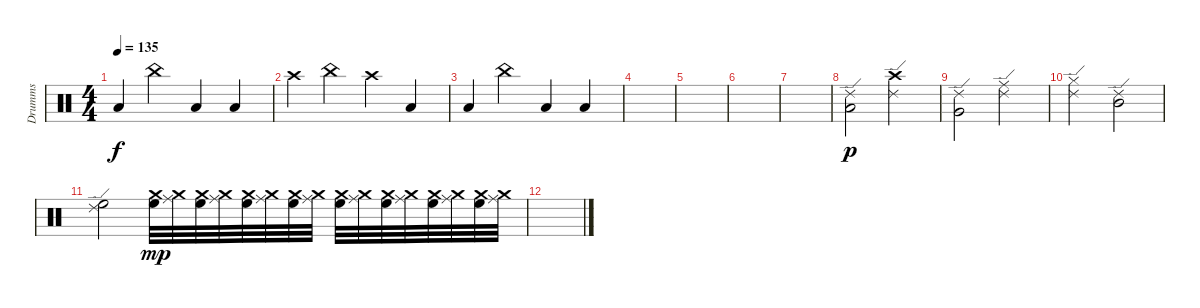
\track ("Drumms" "Drumms") {instrument percussion}
\staff {score}
\articulation defaults
\ts (4 4)
\tempo 135
\clef neutral
\ks c "Low Tom (hit)".4{dy f} "China (hit)".4 "Low Tom (hit)".4 "Low Floor Tom (hit)".4
|
"Crash high (hit)".4 "China (hit)".4 "Crash high (hit)".4 "Low Floor Tom (hit)".4 |
"Low Tom (hit)".4 "China (hit)".4 "Low Tom (hit)".4 "Low Floor Tom (hit)".4 |
\section ("" "")
|
|
|
|
\section ("" "")
("Ride (edge) 2" "Low Floor Tom (hit)").2{dy p} ("Ride (edge) 2" "Crash high (hit)").2 |
("Ride (edge) 2" "Very Low Tom (hit)").2 ("Ride (edge) 2" "Ride (middle)").2 |
("Ride (edge) 2" "Hi-Hat (closed)").2 ("Ride (edge) 2" "Mid Tom (hit)").2 |
("Ride (edge) 2" "High Floor Tom (hit)").2 ("Crash medium (hit)" "High Floor Tom (hit)").32{dy mp} ("Crash medium (hit)" "Ride (middle)").32 ("Crash medium (hit)" "High Floor Tom (hit)").32 ("Crash medium (hit)" "Ride (middle)").32 ("Crash medium (hit)" "High Floor Tom (hit)").32 ("Crash medium (hit)" "Ride (middle)").32 ("Crash medium (hit)" "High Floor Tom (hit)").32 ("Crash medium (hit)" "Ride (middle)").32 ("Crash medium (hit)" "High Floor Tom (hit)").32 ("Crash medium (hit)" "Ride (middle)").32 ("Crash medium (hit)" "High Floor Tom (hit)").32 ("Crash medium (hit)" "Ride (middle)").32 ("Crash medium (hit)" "High Floor Tom (hit)").32 ("Crash medium (hit)" "Ride (middle)").32 ("Crash medium (hit)" "High Floor Tom (hit)").32 ("Crash medium (hit)" "Ride (middle)").32 |
\section ("" "")
